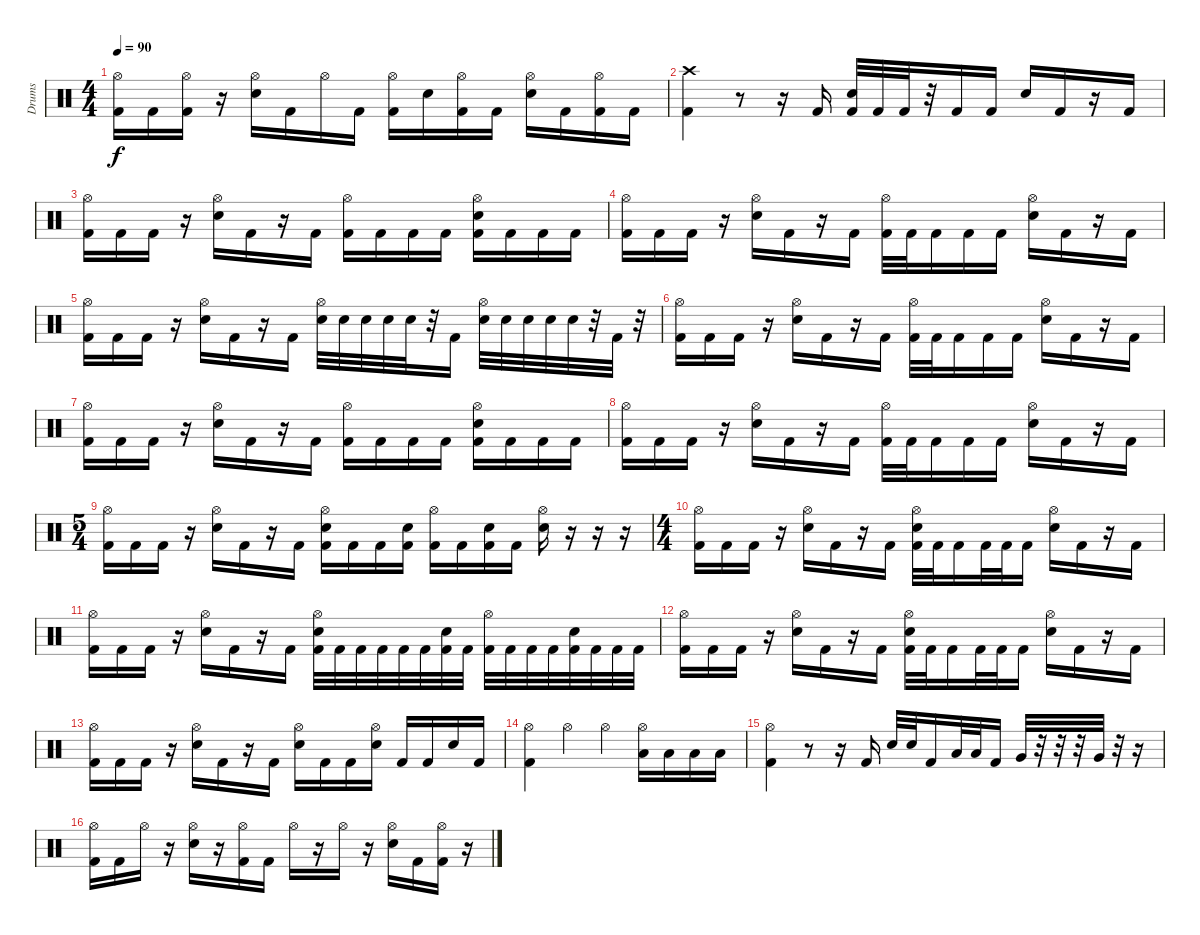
\track ("Drums" "Drums") {instrument percussion}
\staff {score}
\articulation defaults
\ts (4 4)
\tempo 90
\clef neutral
\ks c
("Hi-Hat (open)" "Kick (hit) 2").16{dy f} "Kick (hit) 2".16 ("Hi-Hat (open)" "Kick (hit) 2").16 r.16 ("Hi-Hat (open)" "Snare (hit) 2").16 "Kick (hit) 2".16 "Hi-Hat (open)".16 "Kick (hit) 2".16 ("Hi-Hat (open)" "Kick (hit) 2").16 "Snare (hit) 2".16 ("Hi-Hat (open)" "Kick (hit) 2").16 "Kick (hit) 2".16 ("Hi-Hat (open)" "Snare (hit) 2").16 "Kick (hit) 2".16 ("Hi-Hat (open)" "Kick (hit) 2").16 "Kick (hit) 2".16 |
("Crash high (hit)" "Kick (hit) 2").4 r.8 r.16 "Kick (hit) 2".16 ("Snare (hit) 2" "Kick (hit) 2").32 "Kick (hit) 2".32 "Kick (hit) 2".32 r.32 "Kick (hit) 2".16 "Kick (hit) 2".16 "Snare (hit) 2".16 "Kick (hit) 2".16 r.16 "Kick (hit) 2".16 |
("Hi-Hat (open)" "Kick (hit) 2").16 "Kick (hit) 2".16 "Kick (hit) 2".16 r.16 ("Hi-Hat (open)" "Snare (hit) 2").16 "Kick (hit) 2".16 r.16 "Kick (hit) 2".16 ("Hi-Hat (open)" "Kick (hit) 2").16 "Kick (hit) 2".16 "Kick (hit) 2".16 "Kick (hit) 2".16 ("Hi-Hat (open)" "Snare (hit) 2" "Kick (hit) 2").16 "Kick (hit) 2".16 "Kick (hit) 2".16 "Kick (hit) 2".16 |
("Hi-Hat (open)" "Kick (hit) 2").16 "Kick (hit) 2".16 "Kick (hit) 2".16 r.16 ("Hi-Hat (open)" "Snare (hit) 2").16 "Kick (hit) 2".16 r.16 "Kick (hit) 2".16 ("Hi-Hat (open)" "Kick (hit) 2").32 "Kick (hit) 2".32 "Kick (hit) 2".16 "Kick (hit) 2".16 "Kick (hit) 2".16 ("Hi-Hat (open)" "Snare (hit) 2").16 "Kick (hit) 2".16 r.16 "Kick (hit) 2".16 |
("Hi-Hat (open)" "Kick (hit) 2").16 "Kick (hit) 2".16 "Kick (hit) 2".16 r.16 ("Hi-Hat (open)" "Snare (hit) 2").16 "Kick (hit) 2".16 r.16 "Kick (hit) 2".16 ("Hi-Hat (open)" "Snare (hit) 2").32 "Snare (hit) 2".32 "Snare (hit) 2".32 "Snare (hit) 2".32 "Snare (hit) 2".32 r.32 "Kick (hit) 2".16 ("Hi-Hat (open)" "Snare (hit) 2").32 "Snare (hit) 2".32 "Snare (hit) 2".32 "Snare (hit) 2".32 "Snare (hit) 2".32 r.32 "Kick (hit) 2".32 r.32 |
("Hi-Hat (open)" "Kick (hit) 2").16 "Kick (hit) 2".16 "Kick (hit) 2".16 r.16 ("Hi-Hat (open)" "Snare (hit) 2").16 "Kick (hit) 2".16 r.16 "Kick (hit) 2".16 ("Hi-Hat (open)" "Kick (hit) 2").32 "Kick (hit) 2".32 "Kick (hit) 2".16 "Kick (hit) 2".16 "Kick (hit) 2".16 ("Hi-Hat (open)" "Snare (hit) 2").16 "Kick (hit) 2".16 r.16 "Kick (hit) 2".16 |
("Hi-Hat (open)" "Kick (hit) 2").16 "Kick (hit) 2".16 "Kick (hit) 2".16 r.16 ("Hi-Hat (open)" "Snare (hit) 2").16 "Kick (hit) 2".16 r.16 "Kick (hit) 2".16 ("Hi-Hat (open)" "Kick (hit) 2").16 "Kick (hit) 2".16 "Kick (hit) 2".16 "Kick (hit) 2".16 ("Hi-Hat (open)" "Snare (hit) 2" "Kick (hit) 2").16 "Kick (hit) 2".16 "Kick (hit) 2".16 "Kick (hit) 2".16 |
("Hi-Hat (open)" "Kick (hit) 2").16 "Kick (hit) 2".16 "Kick (hit) 2".16 r.16 ("Hi-Hat (open)" "Snare (hit) 2").16 "Kick (hit) 2".16 r.16 "Kick (hit) 2".16 ("Hi-Hat (open)" "Kick (hit) 2").32 "Kick (hit) 2".32 "Kick (hit) 2".16 "Kick (hit) 2".16 "Kick (hit) 2".16 ("Hi-Hat (open)" "Snare (hit) 2").16 "Kick (hit) 2".16 r.16 "Kick (hit) 2".16 |
\ts (5 4)
("Hi-Hat (open)" "Kick (hit) 2").16 "Kick (hit) 2".16 "Kick (hit) 2".16 r.16 ("Hi-Hat (open)" "Snare (hit) 2").16 "Kick (hit) 2".16 r.16 "Kick (hit) 2".16 ("Hi-Hat (open)" "Snare (hit) 2" "Kick (hit) 2").16 "Kick (hit) 2".16 "Kick (hit) 2".16 ("Snare (hit) 2" "Kick (hit) 2").16 ("Hi-Hat (open)" "Kick (hit) 2").16 "Kick (hit) 2".16 ("Snare (hit) 2" "Kick (hit) 2").16 "Kick (hit) 2".16 ("Hi-Hat (open)" "Snare (hit) 2").16 r.16 r.16 r.16 |
\ts (4 4)
("Hi-Hat (open)" "Kick (hit) 2").16 "Kick (hit) 2".16 "Kick (hit) 2".16 r.16 ("Hi-Hat (open)" "Snare (hit) 2").16 "Kick (hit) 2".16 r.16 "Kick (hit) 2".16 ("Hi-Hat (open)" "Snare (hit) 2" "Kick (hit) 2").32 "Kick (hit) 2".32 "Kick (hit) 2".16 "Kick (hit) 2".32 "Kick (hit) 2".32 "Kick (hit) 2".16 ("Hi-Hat (open)" "Snare (hit) 2").16 "Kick (hit) 2".16 r.16 "Kick (hit) 2".16 |
("Hi-Hat (open)" "Kick (hit) 2").16 "Kick (hit) 2".16 "Kick (hit) 2".16 r.16 ("Hi-Hat (open)" "Snare (hit) 2").16 "Kick (hit) 2".16 r.16 "Kick (hit) 2".16 ("Hi-Hat (open)" "Snare (hit) 2" "Kick (hit) 2").32 "Kick (hit) 2".32 "Kick (hit) 2".32 "Kick (hit) 2".32 "Kick (hit) 2".32 "Kick (hit) 2".32 ("Snare (hit) 2" "Kick (hit) 2").32 "Kick (hit) 2".32 ("Hi-Hat (open)" "Kick (hit) 2").32 "Kick (hit) 2".32 "Kick (hit) 2".32 "Kick (hit) 2".32 ("Snare (hit) 2" "Kick (hit) 2").32 "Kick (hit) 2".32 "Kick (hit) 2".32 "Kick (hit) 2".32 |
("Hi-Hat (open)" "Kick (hit) 2").16 "Kick (hit) 2".16 "Kick (hit) 2".16 r.16 ("Hi-Hat (open)" "Snare (hit) 2").16 "Kick (hit) 2".16 r.16 "Kick (hit) 2".16 ("Hi-Hat (open)" "Snare (hit) 2" "Kick (hit) 2").32 "Kick (hit) 2".32 "Kick (hit) 2".16 "Kick (hit) 2".32 "Kick (hit) 2".32 "Kick (hit) 2".16 ("Hi-Hat (open)" "Snare (hit) 2").16 "Kick (hit) 2".16 r.16 "Kick (hit) 2".16 |
("Hi-Hat (open)" "Kick (hit) 2").16 "Kick (hit) 2".16 "Kick (hit) 2".16 r.16 ("Hi-Hat (open)" "Snare (hit) 2").16 "Kick (hit) 2".16 r.16 "Kick (hit) 2".16 ("Hi-Hat (open)" "Snare (hit) 2").16 "Kick (hit) 2".16 "Kick (hit) 2".16 ("Hi-Hat (open)" "Snare (hit) 2").16 "Kick (hit) 2".16 "Kick (hit) 2".16 "Snare (hit) 2".16 "Kick (hit) 2".16 |
("Hi-Hat (open)" "Kick (hit) 2").4 "Hi-Hat (open)".4 "Hi-Hat (open)".4 ("Hi-Hat (open)" "Low Floor Tom (hit)").16 "Low Floor Tom (hit)".16 "Low Floor Tom (hit)".16 "Low Floor Tom (hit)".16 |
("Hi-Hat (open)" "Kick (hit) 2").4 r.8 r.16 "Kick (hit) 2".16 "Snare (hit) 2".32 "Snare (hit) 2".32 "Kick (hit) 2".16 "Low Floor Tom (hit)".32 "Low Floor Tom (hit)".32 "Kick (hit) 2".16 "Very Low Tom (hit)".32 r.32 r.32 r.32 "Very Low Tom (hit)".32 r.32 r.16 |
("Hi-Hat (open)" "Kick (hit) 2").16 "Kick (hit) 2".16 "Hi-Hat (open)".16 r.16 ("Hi-Hat (open)" "Snare (hit) 2").16 r.16 ("Hi-Hat (open)" "Kick (hit) 2").16 "Kick (hit) 2".16 "Hi-Hat (open)".16 r.16 "Hi-Hat (open)".16 r.16 ("Hi-Hat (open)" "Snare (hit) 2").16 "Kick (hit) 2".16 ("Hi-Hat (open)" "Kick (hit) 2").16 r.16
